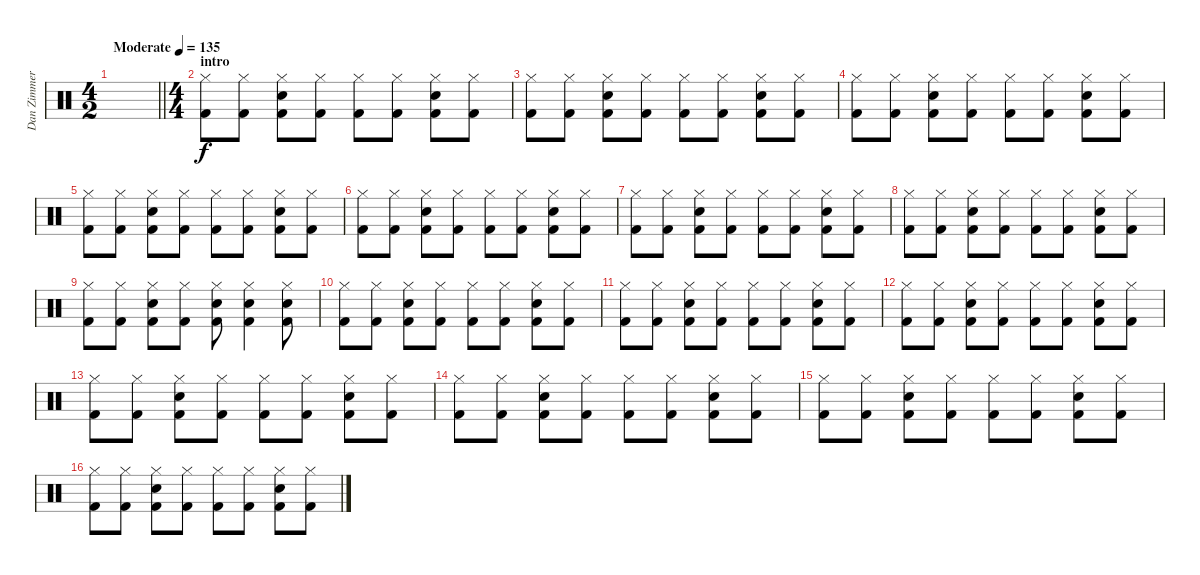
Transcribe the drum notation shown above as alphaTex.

\track ("Dan Zimmerman" "Dan Zimmer") {instrument percussion}
\staff {score}
\articulation defaults
\ts (4 2)
\tempo (135 "Moderate")
\clef neutral
\barLineRight lightlight
\ks c
|
\ts (4 4)
\section ("" "intro")
("Hi-Hat (closed)" "Kick (hit) 2").8 ("Hi-Hat (closed)" "Kick (hit) 2").8 ("Snare (hit) 2" "Hi-Hat (closed)" "Kick (hit) 2").8 ("Hi-Hat (closed)" "Kick (hit) 2").8 ("Hi-Hat (closed)" "Kick (hit) 2").8 ("Hi-Hat (closed)" "Kick (hit) 2").8 ("Snare (hit) 2" "Hi-Hat (closed)" "Kick (hit) 2").8 ("Hi-Hat (closed)" "Kick (hit) 2").8 |
("Hi-Hat (closed)" "Kick (hit) 2").8 ("Hi-Hat (closed)" "Kick (hit) 2").8 ("Snare (hit) 2" "Hi-Hat (closed)" "Kick (hit) 2").8 ("Hi-Hat (closed)" "Kick (hit) 2").8 ("Hi-Hat (closed)" "Kick (hit) 2").8 ("Hi-Hat (closed)" "Kick (hit) 2").8 ("Snare (hit)" "Hi-Hat (closed)" "Kick (hit) 2").8 ("Hi-Hat (closed)" "Kick (hit) 2").8 |
("Hi-Hat (closed)" "Kick (hit) 2").8 ("Hi-Hat (closed)" "Kick (hit) 2").8 ("Snare (hit) 2" "Hi-Hat (closed)" "Kick (hit) 2").8 ("Hi-Hat (closed)" "Kick (hit) 2").8 ("Hi-Hat (closed)" "Kick (hit) 2").8 ("Hi-Hat (closed)" "Kick (hit) 2").8 ("Snare (hit) 2" "Hi-Hat (closed)" "Kick (hit) 2").8 ("Hi-Hat (closed)" "Kick (hit) 2").8 |
("Hi-Hat (closed)" "Kick (hit) 2").8 ("Hi-Hat (closed)" "Kick (hit) 2").8 ("Snare (hit) 2" "Hi-Hat (closed)" "Kick (hit) 2").8 ("Hi-Hat (closed)" "Kick (hit) 2").8 ("Hi-Hat (closed)" "Kick (hit) 2").8 ("Hi-Hat (closed)" "Kick (hit) 2").8 ("Snare (hit) 2" "Hi-Hat (closed)" "Kick (hit) 2").8 ("Hi-Hat (closed)" "Kick (hit) 2").8 |
("Hi-Hat (closed)" "Kick (hit) 2").8 ("Hi-Hat (closed)" "Kick (hit) 2").8 ("Snare (hit) 2" "Hi-Hat (closed)" "Kick (hit) 2").8 ("Hi-Hat (closed)" "Kick (hit) 2").8 ("Hi-Hat (closed)" "Kick (hit) 2").8 ("Hi-Hat (closed)" "Kick (hit) 2").8 ("Snare (hit) 2" "Hi-Hat (closed)" "Kick (hit) 2").8 ("Hi-Hat (closed)" "Kick (hit) 2").8 |
("Hi-Hat (closed)" "Kick (hit) 2").8 ("Hi-Hat (closed)" "Kick (hit) 2").8 ("Snare (hit) 2" "Hi-Hat (closed)" "Kick (hit) 2").8 ("Hi-Hat (closed)" "Kick (hit) 2").8 ("Hi-Hat (closed)" "Kick (hit) 2").8 ("Hi-Hat (closed)" "Kick (hit) 2").8 ("Snare (hit) 2" "Hi-Hat (closed)" "Kick (hit) 2").8 ("Hi-Hat (closed)" "Kick (hit) 2").8 |
("Hi-Hat (closed)" "Kick (hit) 2").8 ("Hi-Hat (closed)" "Kick (hit) 2").8 ("Snare (hit) 2" "Hi-Hat (closed)" "Kick (hit) 2").8 ("Hi-Hat (closed)" "Kick (hit) 2").8 ("Hi-Hat (closed)" "Kick (hit) 2").8 ("Hi-Hat (closed)" "Kick (hit) 2").8 ("Snare (hit) 2" "Hi-Hat (closed)" "Kick (hit) 2").8 ("Hi-Hat (closed)" "Kick (hit) 2").8 |
("Hi-Hat (closed)" "Kick (hit) 2").8 ("Hi-Hat (closed)" "Kick (hit) 2").8 ("Snare (hit) 2" "Hi-Hat (closed)" "Kick (hit) 2").8 ("Hi-Hat (closed)" "Kick (hit) 2").8 ("Snare (hit) 2" "Hi-Hat (closed)" "Kick (hit) 2").8 ("Snare (hit) 2" "Hi-Hat (closed)" "Kick (hit) 2").4 ("Snare (hit) 2" "Hi-Hat (closed)" "Kick (hit) 2").8 |
("Hi-Hat (closed)" "Kick (hit) 2").8 ("Hi-Hat (closed)" "Kick (hit) 2").8 ("Snare (hit) 2" "Hi-Hat (closed)" "Kick (hit) 2").8 ("Hi-Hat (closed)" "Kick (hit) 2").8 ("Hi-Hat (closed)" "Kick (hit) 2").8 ("Hi-Hat (closed)" "Kick (hit) 2").8 ("Snare (hit) 2" "Hi-Hat (closed)" "Kick (hit) 2").8 ("Hi-Hat (closed)" "Kick (hit) 2").8 |
("Hi-Hat (closed)" "Kick (hit) 2").8 ("Hi-Hat (closed)" "Kick (hit) 2").8 ("Snare (hit) 2" "Hi-Hat (closed)" "Kick (hit) 2").8 ("Hi-Hat (closed)" "Kick (hit) 2").8 ("Hi-Hat (closed)" "Kick (hit) 2").8 ("Hi-Hat (closed)" "Kick (hit) 2").8 ("Snare (hit)" "Hi-Hat (closed)" "Kick (hit) 2").8 ("Hi-Hat (closed)" "Kick (hit) 2").8 |
("Hi-Hat (closed)" "Kick (hit) 2").8 ("Hi-Hat (closed)" "Kick (hit) 2").8 ("Snare (hit) 2" "Hi-Hat (closed)" "Kick (hit) 2").8 ("Hi-Hat (closed)" "Kick (hit) 2").8 ("Hi-Hat (closed)" "Kick (hit) 2").8 ("Hi-Hat (closed)" "Kick (hit) 2").8 ("Snare (hit) 2" "Hi-Hat (closed)" "Kick (hit) 2").8 ("Hi-Hat (closed)" "Kick (hit) 2").8 |
("Hi-Hat (closed)" "Kick (hit) 2").8 ("Hi-Hat (closed)" "Kick (hit) 2").8 ("Snare (hit) 2" "Hi-Hat (closed)" "Kick (hit) 2").8 ("Hi-Hat (closed)" "Kick (hit) 2").8 ("Hi-Hat (closed)" "Kick (hit) 2").8 ("Hi-Hat (closed)" "Kick (hit) 2").8 ("Snare (hit) 2" "Hi-Hat (closed)" "Kick (hit) 2").8 ("Hi-Hat (closed)" "Kick (hit) 2").8 |
("Hi-Hat (closed)" "Kick (hit) 2").8 ("Hi-Hat (closed)" "Kick (hit) 2").8 ("Snare (hit) 2" "Hi-Hat (closed)" "Kick (hit) 2").8 ("Hi-Hat (closed)" "Kick (hit) 2").8 ("Hi-Hat (closed)" "Kick (hit) 2").8 ("Hi-Hat (closed)" "Kick (hit) 2").8 ("Snare (hit) 2" "Hi-Hat (closed)" "Kick (hit) 2").8 ("Hi-Hat (closed)" "Kick (hit) 2").8 |
("Hi-Hat (closed)" "Kick (hit) 2").8 ("Hi-Hat (closed)" "Kick (hit) 2").8 ("Snare (hit) 2" "Hi-Hat (closed)" "Kick (hit) 2").8 ("Hi-Hat (closed)" "Kick (hit) 2").8 ("Hi-Hat (closed)" "Kick (hit) 2").8 ("Hi-Hat (closed)" "Kick (hit) 2").8 ("Snare (hit) 2" "Hi-Hat (closed)" "Kick (hit) 2").8 ("Hi-Hat (closed)" "Kick (hit) 2").8 |
("Hi-Hat (closed)" "Kick (hit) 2").8 ("Hi-Hat (closed)" "Kick (hit) 2").8 ("Snare (hit) 2" "Hi-Hat (closed)" "Kick (hit) 2").8 ("Hi-Hat (closed)" "Kick (hit) 2").8 ("Hi-Hat (closed)" "Kick (hit) 2").8 ("Hi-Hat (closed)" "Kick (hit) 2").8 ("Snare (hit) 2" "Hi-Hat (closed)" "Kick (hit) 2").8 ("Hi-Hat (closed)" "Kick (hit) 2").8
